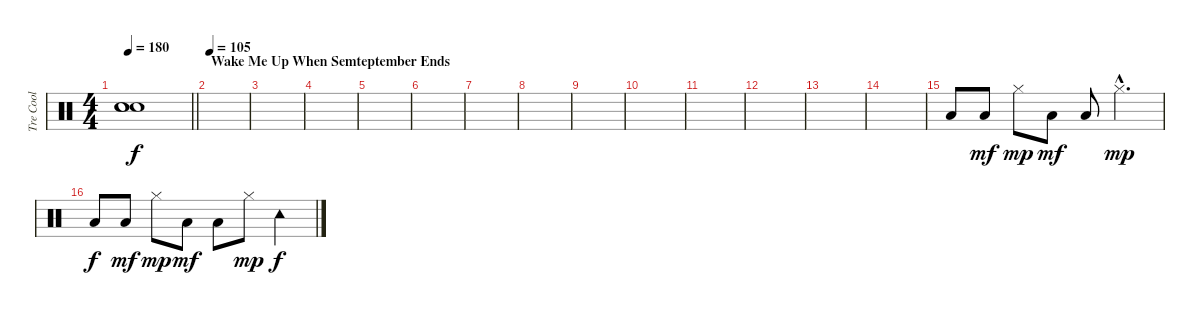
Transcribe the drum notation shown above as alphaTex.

\track ("Tre Cool" "Tre Cool") {instrument percussion}
\staff {score}
\articulation defaults
\ts (4 4)
\tempo 180
\clef neutral
\barLineRight lightlight
\ks c
("Snare (hit)"{t} "Snare (hit)"{t} "Snare (hit)"{t}).1{dy f} |
\section ("" "Wake Me Up When Semteptember Ends")
\tempo 105
|
|
|
|
|
|
|
|
|
|
|
|
|
"Low Floor Tom (hit)".8 "Low Floor Tom (hit)".8{dy mf} "Hi-Hat (closed)".8{dy mp} "Low Floor Tom (hit)".8{dy mf} "Low Floor Tom (hit)".8 "Hi-Hat (closed)"{hac}.4{d dy mp} |
"Low Floor Tom (hit)".8{dy f} "Low Floor Tom (hit)".8{dy mf} "Hi-Hat (closed)".8{dy mp} "Low Floor Tom (hit)".8{dy mf} "Low Floor Tom (hit)".8 "Hi-Hat (closed)".8{dy mp} "Tambourine (hit)".4{dy f}
